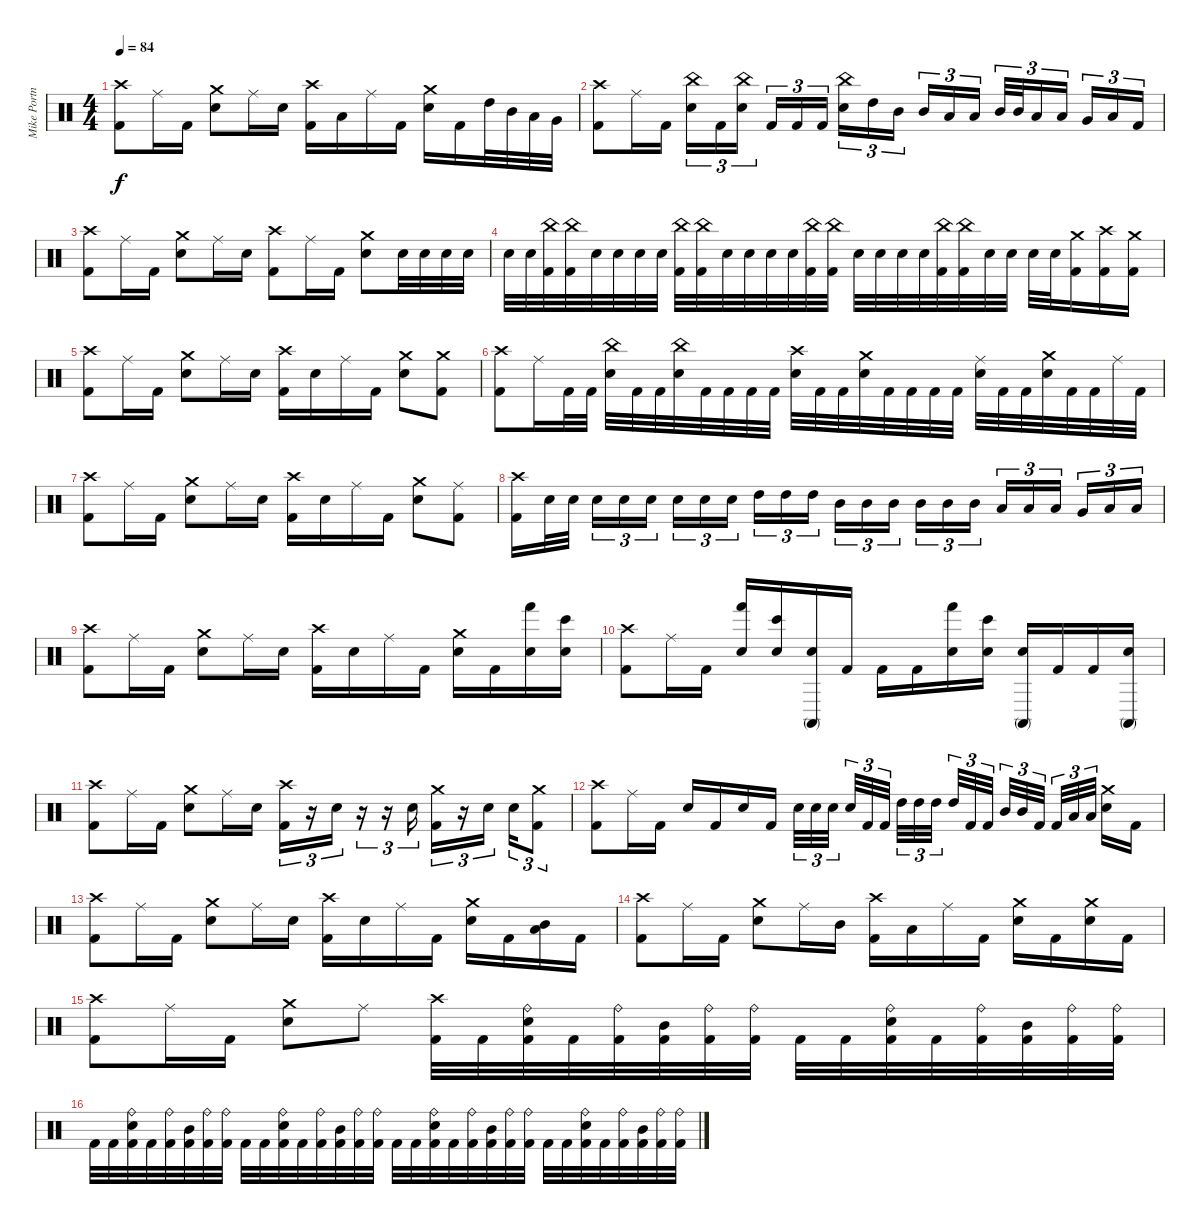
\track ("Mike Portnoy" "Mike Portn") {instrument percussion}
\staff {score}
\articulation defaults
\ts (4 4)
\tempo 84
\clef neutral
\ks c
("Crash high (hit)" "Kick (hit) 2").8{dy f} "Ride (middle)".16 "Kick (hit) 2".16 ("Crash medium (hit)" "Snare (hit) 2").8 "Ride (middle)".16 "Snare (hit) 2".16 ("Crash high (hit)" "Kick (hit) 2").16 "Low Tom (hit)".16 "Ride (middle)".16 "Kick (hit) 2".16 ("Crash medium (hit)" "Snare (hit) 2").16 "Kick (hit) 2".16 "High Tom (hit)".32 "Mid Tom (hit)".32 "Low Tom (hit)".32 "Very Low Tom (hit)".32 |
("Crash high (hit)" "Kick (hit) 2").8 "Ride (middle)".16 "Kick (hit) 2".16 ("China (hit)" "Snare (hit) 2").16{tu (3 2)} "Kick (hit) 2".16{tu (3 2)} ("China (hit)" "Snare (hit) 2").16{tu (3 2) beam splitsecondary} "Kick (hit) 2".16{tu (3 2)} "Kick (hit) 2".16{tu (3 2)} "Kick (hit) 2".16{tu (3 2)} ("China (hit)" "Snare (hit) 2").16{tu (3 2)} "High Tom (hit)".16{tu (3 2)} "Mid Tom (hit)".16{tu (3 2) beam splitsecondary} "Mid Tom (hit)".16{tu (3 2)} "Low Tom (hit)".16{tu (3 2)} "Low Tom (hit)".16{tu (3 2)} "Mid Tom (hit)".32{tu (3 2)} "Mid Tom (hit)".32{tu (3 2)} "Low Tom (hit)".16{tu (3 2)} "Low Tom (hit)".16{tu (3 2) beam splitsecondary} "Very Low Tom (hit)".16{tu (3 2)} "Low Floor Tom (hit)".16{tu (3 2)} "Kick (hit) 2".16{tu (3 2)} |
("Crash high (hit)" "Kick (hit) 2").8 "Ride (middle)".16 "Kick (hit) 2".16 ("Crash medium (hit)" "Snare (hit) 2").8 "Ride (middle)".16 "Snare (hit) 2".16 ("Crash high (hit)" "Kick (hit) 2").8 "Ride (middle)".16 "Kick (hit) 2".16 ("Crash medium (hit)" "Snare (hit) 2").8 "Snare (hit) 2".32 "Snare (hit) 2".32 "Snare (hit) 2".32 "Snare (hit) 2".32 |
"Snare (hit) 2".32 "Snare (hit) 2".32 ("China (hit)" "Kick (hit) 2").32 ("China (hit)" "Kick (hit) 2").32 "Snare (hit) 2".32 "Snare (hit) 2".32 "Snare (hit) 2".32 "Snare (hit) 2".32 ("China (hit)" "Kick (hit) 2").32 ("China (hit)" "Kick (hit) 2").32 "Snare (hit) 2".32 "Snare (hit) 2".32 "Snare (hit) 2".32 "Snare (hit) 2".32 ("China (hit)" "Kick (hit) 2").32 ("China (hit)" "Kick (hit) 2").32 "Snare (hit) 2".32 "Snare (hit) 2".32 "Snare (hit) 2".32 "Snare (hit) 2".32 ("China (hit)" "Kick (hit) 2").32 ("China (hit)" "Kick (hit) 2").32 "Snare (hit) 2".32 "Snare (hit) 2".32 "Snare (hit) 2".32 "Snare (hit) 2".32 ("Crash medium (hit)" "Kick (hit) 2").16 ("Crash high (hit)" "Kick (hit) 2").16 ("Crash medium (hit)" "Kick (hit) 2").16 |
("Crash high (hit)" "Kick (hit) 2").8 "Ride (middle)".16 "Kick (hit) 2".16 ("Crash medium (hit)" "Snare (hit) 2").8 "Ride (middle)".16 "Snare (hit) 2".16 ("Crash high (hit)" "Kick (hit) 2").16 "Snare (hit) 2".16 "Ride (middle)".16 "Kick (hit) 2".16 ("Crash medium (hit)" "Snare (hit) 2").8 ("Crash medium (hit)" "Kick (hit) 2").8 |
("Crash high (hit)" "Kick (hit) 2").8 "Ride (middle)".16 "Kick (hit) 2".32 "Kick (hit) 2".32 ("China (hit)" "Snare (hit) 2").32 "Kick (hit) 2".32 "Kick (hit) 2".32 ("China (hit)" "Snare (hit) 2").32 "Kick (hit) 2".32 "Kick (hit) 2".32 "Kick (hit) 2".32 "Kick (hit) 2".32 ("Crash high (hit)" "Snare (hit) 2").32 "Kick (hit) 2".32 "Kick (hit) 2".32 ("Crash medium (hit)" "Snare (hit) 2").32 "Kick (hit) 2".32 "Kick (hit) 2".32 "Kick (hit) 2".32 "Kick (hit) 2".32 ("Ride (middle)" "Snare (hit) 2").32 "Kick (hit) 2".32 "Kick (hit) 2".32 ("Crash medium (hit)" "Snare (hit) 2").32 "Kick (hit) 2".32 "Kick (hit) 2".32 "Ride (middle)".32 "Kick (hit) 2".32 |
("Crash high (hit)" "Kick (hit) 2").8 "Ride (middle)".16 "Kick (hit) 2".16 ("Crash medium (hit)" "Snare (hit) 2").8 "Ride (middle)".16 "Snare (hit) 2".16 ("Crash high (hit)" "Kick (hit) 2").16 "Snare (hit) 2".16 "Ride (middle)".16 "Kick (hit) 2".16 ("Crash medium (hit)" "Snare (hit) 2").8 ("Ride (middle)" "Kick (hit) 2").8 |
("Crash high (hit)" "Kick (hit) 2").16 "Snare (hit) 2".32 "Snare (hit) 2".32{beam splitsecondary} "Snare (hit) 2".16{tu (3 2)} "Snare (hit) 2".16{tu (3 2)} "Snare (hit) 2".16{tu (3 2)} "Snare (hit) 2".16{tu (3 2)} "Snare (hit) 2".16{tu (3 2)} "Snare (hit) 2".16{tu (3 2) beam splitsecondary} "High Tom (hit)".16{tu (3 2)} "High Tom (hit)".16{tu (3 2)} "High Tom (hit)".16{tu (3 2)} "Mid Tom (hit)".16{tu (3 2)} "Mid Tom (hit)".16{tu (3 2)} "Mid Tom (hit)".16{tu (3 2) beam splitsecondary} "Mid Tom (hit)".16{tu (3 2)} "Mid Tom (hit)".16{tu (3 2)} "Mid Tom (hit)".16{tu (3 2)} "Low Tom (hit)".16{tu (3 2)} "Low Tom (hit)".16{tu (3 2)} "Low Tom (hit)".16{tu (3 2) beam splitsecondary} "Very Low Tom (hit)".16{tu (3 2)} "Low Floor Tom (hit)".16{tu (3 2)} "Low Floor Tom (hit)".16{tu (3 2)} |
("Crash high (hit)" "Kick (hit) 2").8 "Ride (middle)".16 "Kick (hit) 2".16 ("Crash medium (hit)" "Snare (hit) 2").8 "Ride (middle)".16 "Snare (hit) 2".16 ("Crash high (hit)" "Kick (hit) 2").16 "Snare (hit) 2".16 "Ride (middle)".16 "Kick (hit) 2".16 ("Crash medium (hit)" "Snare (hit) 2").16 "Kick (hit) 2".16 ("Hand (hit)" "Snare (hit) 2").16 ("Bongo High (hit)" "Snare (hit) 2").16 |
("Crash high (hit)" "Kick (hit) 2").8 "Ride (middle)".16 "Kick (hit) 2".16 ("Hand (hit)" "Snare (hit) 2").16 ("Bongo High (hit)" "Snare (hit) 2").16 ("Conga high (mute)" "Snare (hit) 2").16 "Kick (hit) 2".16 "Kick (hit) 2".16 "Kick (hit) 2".16 ("Hand (hit)" "Snare (hit) 2").16 ("Bongo High (hit)" "Snare (hit) 2").16 ("Conga high (mute)" "Snare (hit) 2").16 "Kick (hit) 2".16 "Kick (hit) 2".16 ("Conga high (mute)" "Snare (hit) 2").16 |
("Crash high (hit)" "Kick (hit) 2").8 "Ride (middle)".16 "Kick (hit) 2".16 ("Crash medium (hit)" "Snare (hit) 2").8 "Ride (middle)".16 "Snare (hit) 2".16 ("Crash high (hit)" "Kick (hit) 2").16{tu (3 2)} r.16{tu (3 2)} "Snare (hit) 2".16{tu (3 2)} r.16{tu (3 2)} r.16{tu (3 2)} "Snare (hit) 2".16{tu (3 2)} ("Crash medium (hit)" "Kick (hit) 2").16{tu (3 2)} r.16{tu (3 2)} "Snare (hit) 2".16{tu (3 2) beam splitsecondary} "Snare (hit) 2".16{tu (3 2)} ("Crash medium (hit)" "Kick (hit) 2").8{tu (3 2)} |
("Crash high (hit)" "Kick (hit) 2").8 "Ride (middle)".16 "Kick (hit) 2".16 "Snare (hit) 2".16 "Kick (hit) 2".16 "Snare (hit) 2".16 "Kick (hit) 2".16 "Snare (hit) 2".32{tu (3 2)} "Snare (hit) 2".32{tu (3 2)} "Snare (hit) 2".32{tu (3 2) beam splitsecondary} "Snare (hit) 2".32{tu (3 2)} "Kick (hit) 2".32{tu (3 2)} "Kick (hit) 2".32{tu (3 2) beam splitsecondary} "High Tom (hit)".32{tu (3 2)} "High Tom (hit)".32{tu (3 2)} "High Tom (hit)".32{tu (3 2) beam splitsecondary} "High Tom (hit)".32{tu (3 2)} "Kick (hit) 2".32{tu (3 2)} "Kick (hit) 2".32{tu (3 2)} "Mid Tom (hit)".32{tu (3 2)} "Mid Tom (hit)".32{tu (3 2)} "Kick (hit) 2".32{tu (3 2) beam splitsecondary} "Kick (hit) 2".32{tu (3 2)} "Low Tom (hit)".32{tu (3 2)} "Low Tom (hit)".32{tu (3 2) beam splitsecondary} ("Crash medium (hit)" "Snare (hit) 2").16 "Kick (hit) 2".16 |
("Crash high (hit)" "Kick (hit) 2").8 "Ride (middle)".16 "Kick (hit) 2".16 ("Crash medium (hit)" "Snare (hit) 2").8 "Ride (middle)".16 "Snare (hit) 2".16 ("Crash high (hit)" "Kick (hit) 2").16 "Snare (hit) 2".16 "Ride (middle)".16 "Kick (hit) 2".16 ("Crash medium (hit)" "Snare (hit) 2").16 "Kick (hit) 2".16 ("Mid Tom (hit)" "Low Tom (hit)").16 "Kick (hit) 2".16 |
("Crash high (hit)" "Kick (hit) 2").8 "Ride (middle)".16 "Kick (hit) 2".16 ("Crash medium (hit)" "Snare (hit) 2").8 "Ride (middle)".16 "Mid Tom (hit)".16 ("Crash high (hit)" "Kick (hit) 2").16 "Low Tom (hit)".16 "Ride (middle)".16 "Kick (hit) 2".16 ("Crash medium (hit)" "Snare (hit) 2").16 "Kick (hit) 2".16 ("Crash medium (hit)" "Snare (hit) 2").16 "Kick (hit) 2".16 |
("Crash high (hit)" "Kick (hit) 2").8 "Ride (middle)".16 "Kick (hit) 2".16 ("Crash medium (hit)" "Snare (hit) 2").8 "Ride (middle)".8 ("Crash high (hit)" "Kick (hit) 2").32 "Kick (hit) 2".32 ("Ride (bell)" "Snare (hit) 2" "Kick (hit) 2").32 "Kick (hit) 2".32 ("Ride (bell)" "Kick (hit) 2").32 ("Mid Tom (hit)" "Kick (hit) 2").32 ("Ride (bell)" "Kick (hit) 2").32 ("Ride (bell)" "Kick (hit) 2").32 "Kick (hit) 2".32 "Kick (hit) 2".32 ("Ride (bell)" "Snare (hit) 2" "Kick (hit) 2").32 "Kick (hit) 2".32 ("Ride (bell)" "Kick (hit) 2").32 ("Mid Tom (hit)" "Kick (hit) 2").32 ("Ride (bell)" "Kick (hit) 2").32 ("Ride (bell)" "Kick (hit) 2").32 |
"Kick (hit) 2".32 "Kick (hit) 2".32 ("Ride (bell)" "Snare (hit) 2" "Kick (hit) 2").32 "Kick (hit) 2".32 ("Ride (bell)" "Kick (hit) 2").32 ("Mid Tom (hit)" "Kick (hit) 2").32 ("Ride (bell)" "Kick (hit) 2").32 ("Ride (bell)" "Kick (hit) 2").32 "Kick (hit) 2".32 "Kick (hit) 2".32 ("Ride (bell)" "Snare (hit) 2" "Kick (hit) 2").32 "Kick (hit) 2".32 ("Ride (bell)" "Kick (hit) 2").32 ("Mid Tom (hit)" "Kick (hit) 2").32 ("Ride (bell)" "Kick (hit) 2").32 ("Ride (bell)" "Kick (hit) 2").32 "Kick (hit) 2".32 "Kick (hit) 2".32 ("Ride (bell)" "Snare (hit) 2" "Kick (hit) 2").32 "Kick (hit) 2".32 ("Ride (bell)" "Kick (hit) 2").32 ("Mid Tom (hit)" "Kick (hit) 2").32 ("Ride (bell)" "Kick (hit) 2").32 ("Ride (bell)" "Kick (hit) 2").32 "Kick (hit) 2".32 "Kick (hit) 2".32 ("Ride (bell)" "Snare (hit) 2" "Kick (hit) 2").32 "Kick (hit) 2".32 ("Ride (bell)" "Kick (hit) 2").32 ("Mid Tom (hit)" "Kick (hit) 2").32 ("Ride (bell)" "Kick (hit) 2").32 ("Ride (bell)" "Kick (hit) 2").32
